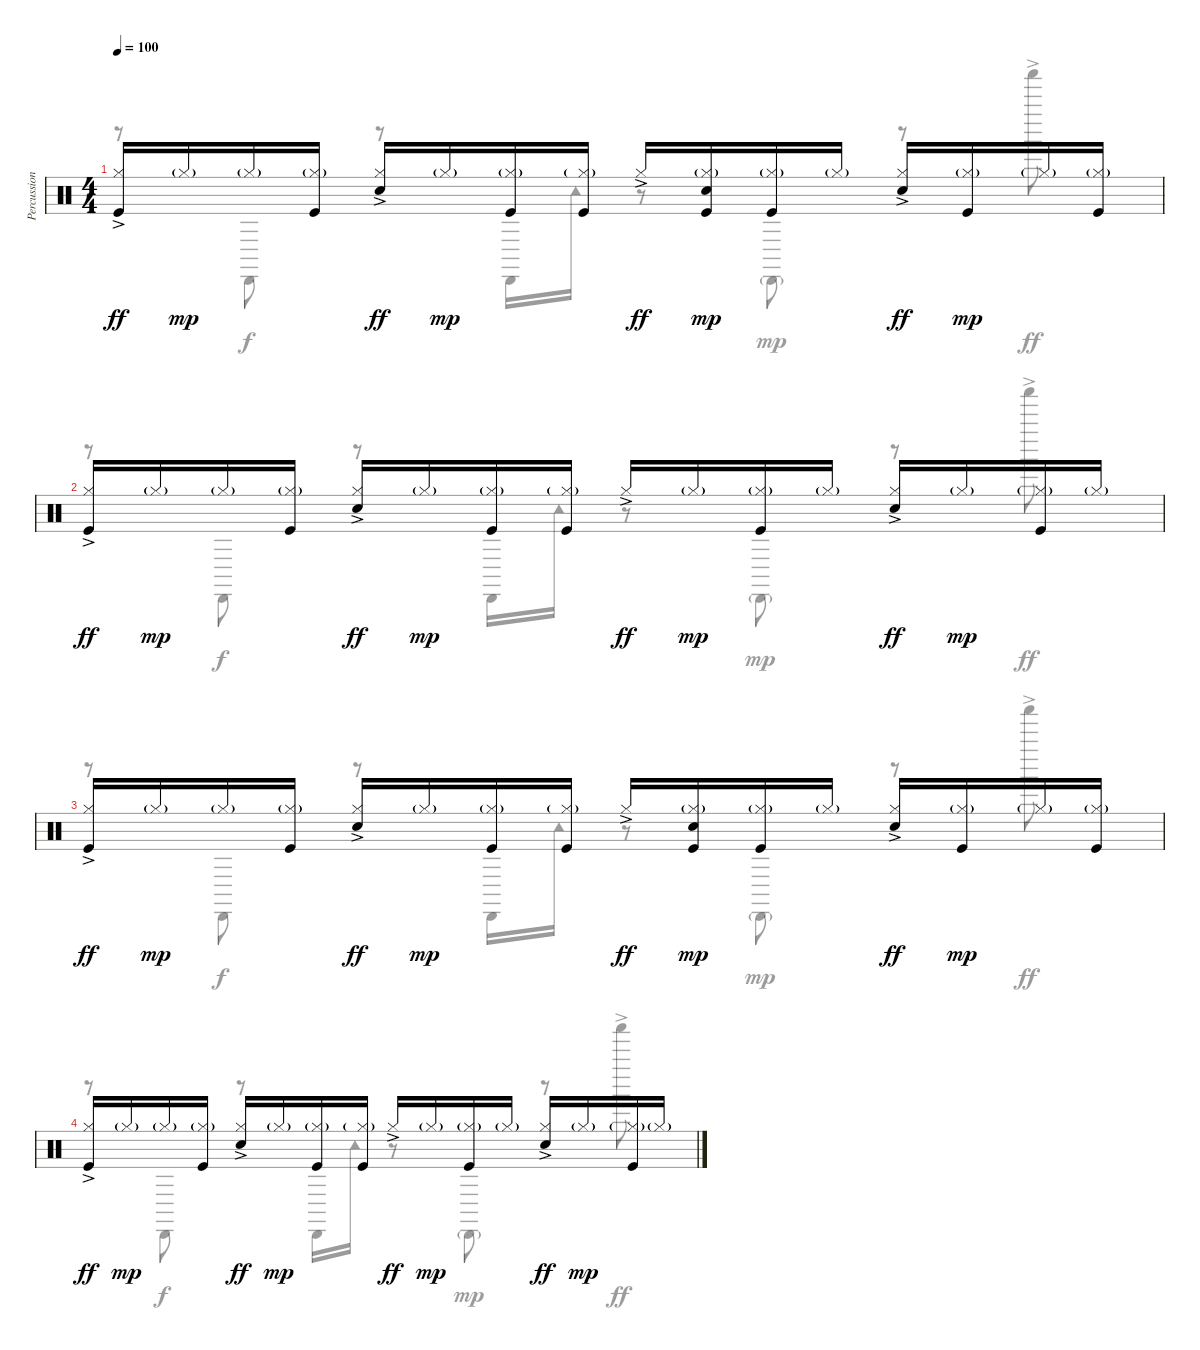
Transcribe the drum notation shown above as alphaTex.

\track ("Percussions" "Percussion") {instrument percussion}
\staff {score}
\articulation defaults
\voice
\ts (4 4)
\tempo 100
\clef neutral
\ks c
("Kick (hit)" "Hi-Hat (closed)"{ac}).16{dy ff} "Hi-Hat (closed)"{g}.16{dy mp} "Hi-Hat (closed)"{g}.16 ("Kick (hit)" "Hi-Hat (closed)"{g}).16 ("Electric Snare (hit)" "Hi-Hat (closed)"{ac}).16{dy ff} "Hi-Hat (closed)"{g}.16{dy mp} ("Kick (hit)" "Hi-Hat (closed)"{g}).16 ("Kick (hit)" "Hi-Hat (closed)"{g}).16 "Hi-Hat (closed)"{ac}.16{dy ff} ("Kick (hit)" "Electric Snare (hit)" "Hi-Hat (closed)"{g}).16{dy mp} ("Kick (hit)" "Hi-Hat (closed)"{g}).16 "Hi-Hat (closed)"{g}.16 ("Snare (hit) 2" "Hi-Hat (closed)"{ac}).16{dy ff} ("Kick (hit)" "Hi-Hat (closed)"{g}).16{dy mp} "Hi-Hat (closed)"{g}.16 ("Kick (hit)" "Hi-Hat (closed)"{g}).16 |
("Kick (hit)" "Hi-Hat (closed)"{ac}).16{dy ff} "Hi-Hat (closed)"{g}.16{dy mp} "Hi-Hat (closed)"{g}.16 ("Kick (hit)" "Hi-Hat (closed)"{g}).16 ("Electric Snare (hit)" "Hi-Hat (closed)"{ac}).16{dy ff} "Hi-Hat (closed)"{g}.16{dy mp} ("Kick (hit)" "Hi-Hat (closed)"{g}).16 ("Kick (hit)" "Hi-Hat (closed)"{g}).16 "Hi-Hat (closed)"{ac}.16{dy ff} "Hi-Hat (closed)"{g}.16{dy mp} ("Kick (hit)" "Hi-Hat (closed)"{g}).16 "Hi-Hat (closed)"{g}.16 ("Snare (hit) 2" "Hi-Hat (closed)"{ac}).16{dy ff} "Hi-Hat (closed)"{g}.16{dy mp} ("Kick (hit)" "Hi-Hat (closed)"{g}).16 "Hi-Hat (closed)"{g}.16 |
("Kick (hit)" "Hi-Hat (closed)"{ac}).16{dy ff} "Hi-Hat (closed)"{g}.16{dy mp} "Hi-Hat (closed)"{g}.16 ("Kick (hit)" "Hi-Hat (closed)"{g}).16 ("Electric Snare (hit)" "Hi-Hat (closed)"{ac}).16{dy ff} "Hi-Hat (closed)"{g}.16{dy mp} ("Kick (hit)" "Hi-Hat (closed)"{g}).16 ("Kick (hit)" "Hi-Hat (closed)"{g}).16 "Hi-Hat (closed)"{ac}.16{dy ff} ("Kick (hit)" "Electric Snare (hit)" "Hi-Hat (closed)"{g}).16{dy mp} ("Kick (hit)" "Hi-Hat (closed)"{g}).16 "Hi-Hat (closed)"{g}.16 ("Snare (hit) 2" "Hi-Hat (closed)"{ac}).16{dy ff} ("Kick (hit)" "Hi-Hat (closed)"{g}).16{dy mp} "Hi-Hat (closed)"{g}.16 ("Kick (hit)" "Hi-Hat (closed)"{g}).16 |
("Kick (hit)" "Hi-Hat (closed)"{ac}).16{dy ff} "Hi-Hat (closed)"{g}.16{dy mp} "Hi-Hat (closed)"{g}.16 ("Kick (hit)" "Hi-Hat (closed)"{g}).16 ("Electric Snare (hit)" "Hi-Hat (closed)"{ac}).16{dy ff} "Hi-Hat (closed)"{g}.16{dy mp} ("Kick (hit)" "Hi-Hat (closed)"{g}).16 ("Kick (hit)" "Hi-Hat (closed)"{g}).16 "Hi-Hat (closed)"{ac}.16{dy ff} "Hi-Hat (closed)"{g}.16{dy mp} ("Kick (hit)" "Hi-Hat (closed)"{g}).16 "Hi-Hat (closed)"{g}.16 ("Snare (hit) 2" "Hi-Hat (closed)"{ac}).16{dy ff} "Hi-Hat (closed)"{g}.16{dy mp} ("Kick (hit)" "Hi-Hat (closed)"{g}).16 "Hi-Hat (closed)"{g}.16
\voice
\clef neutral
\ottava regular
\simile none
\ks c
r.8{dy ff} "Cabasa (hit)".8{dy f} r.8 "Cabasa (hit)".16 "Tambourine (hit)".16 r.8 "Cabasa (hit)"{g}.8{dy mp} r.8 "Shaker (hit)"{ac}.8{dy ff} |
r.8 "Cabasa (hit)".8{dy f} r.8 "Cabasa (hit)".16 "Tambourine (hit)".16 r.8 "Cabasa (hit)"{g}.8{dy mp} r.8 "Shaker (hit)"{ac}.8{dy ff} |
r.8 "Cabasa (hit)".8{dy f} r.8 "Cabasa (hit)".16 "Tambourine (hit)".16 r.8 "Cabasa (hit)"{g}.8{dy mp} r.8 "Shaker (hit)"{ac}.8{dy ff} |
r.8 "Cabasa (hit)".8{dy f} r.8 "Cabasa (hit)".16 "Tambourine (hit)".16 r.8 "Cabasa (hit)"{g}.8{dy mp} r.8 "Shaker (hit)"{ac}.8{dy ff}
